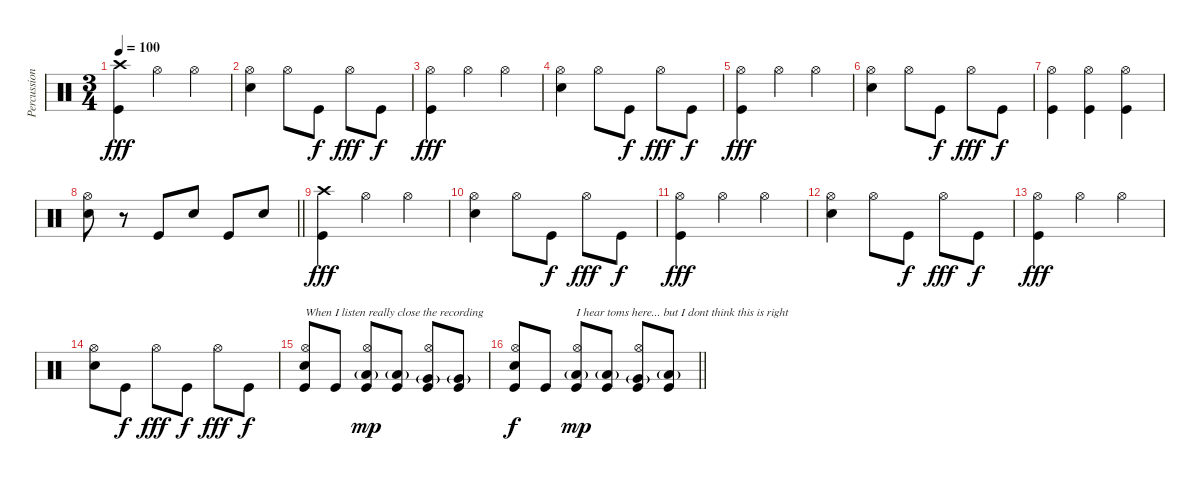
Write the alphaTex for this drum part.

\track ("Percussion" "Percussion") {instrument percussion}
\staff {score}
\articulation defaults
\ts (3 4)
\section ("" "")
\tempo 100
\clef neutral
\ks aminor
("Crash high (hit)" "Kick (hit)").4{dy fff} "Hi-Hat (open)".4 "Hi-Hat (open)".4 |
("Hi-Hat (open)" "Snare (hit) 2").4 "Hi-Hat (open)".8 "Kick (hit)".8{dy f} "Hi-Hat (open)".8{dy fff} "Kick (hit)".8{dy f} |
("Hi-Hat (open)" "Kick (hit)").4{dy fff} "Hi-Hat (open)".4 "Hi-Hat (open)".4 |
("Hi-Hat (open)" "Snare (hit) 2").4 "Hi-Hat (open)".8 "Kick (hit)".8{dy f} "Hi-Hat (open)".8{dy fff} "Kick (hit)".8{dy f} |
("Hi-Hat (open)" "Kick (hit)").4{dy fff} "Hi-Hat (open)".4 "Hi-Hat (open)".4 |
("Hi-Hat (open)" "Snare (hit) 2").4 "Hi-Hat (open)".8 "Kick (hit)".8{dy f} "Hi-Hat (open)".8{dy fff} "Kick (hit)".8{dy f} |
("Hi-Hat (open)" "Kick (hit)").4 ("Hi-Hat (open)" "Kick (hit)").4 ("Hi-Hat (open)" "Kick (hit)").4 |
\barLineRight lightlight
("Hi-Hat (open)" "Snare (hit) 2").8 r.8 "Kick (hit)".8 "Snare (hit) 2".8 "Kick (hit)".8 "Snare (hit) 2".8 |
\section ("" "")
("Crash high (hit)" "Kick (hit)").4{dy fff} "Hi-Hat (open)".4 "Hi-Hat (open)".4 |
("Hi-Hat (open)" "Snare (hit) 2").4 "Hi-Hat (open)".8 "Kick (hit)".8{dy f} "Hi-Hat (open)".8{dy fff} "Kick (hit)".8{dy f} |
("Hi-Hat (open)" "Kick (hit)").4{dy fff} "Hi-Hat (open)".4 "Hi-Hat (open)".4 |
("Hi-Hat (open)" "Snare (hit) 2").4 "Hi-Hat (open)".8 "Kick (hit)".8{dy f} "Hi-Hat (open)".8{dy fff} "Kick (hit)".8{dy f} |
("Hi-Hat (open)" "Kick (hit)").4{dy fff} "Hi-Hat (open)".4 "Hi-Hat (open)".4 |
("Hi-Hat (open)" "Snare (hit) 2").8 "Kick (hit)".8{dy f} "Hi-Hat (open)".8{dy fff} "Kick (hit)".8{dy f} "Hi-Hat (open)".8{dy fff} "Kick (hit)".8{dy f} |
("Hi-Hat (open)" "Snare (hit) 2" "Kick (hit)").8{txt "When I listen really close the recording"} "Kick (hit)".8 ("Hi-Hat (open)" "Low Tom (hit)"{g} "Kick (hit)").8{dy mp} ("Low Floor Tom (hit)"{g} "Kick (hit)").8 ("Hi-Hat (open)" "Very Low Tom (hit)"{g} "Kick (hit)").8 ("Very Low Tom (hit)"{g} "Kick (hit)").8 |
\barLineRight lightlight
("Hi-Hat (open)" "Snare (hit) 2" "Kick (hit)").8{dy f} "Kick (hit)".8 ("Hi-Hat (open)" "Low Tom (hit)"{g} "Kick (hit)").8{txt "I hear toms here... but I dont think this is right" dy mp} ("Low Floor Tom (hit)"{g} "Kick (hit)").8 ("Hi-Hat (open)" "Very Low Tom (hit)"{g} "Kick (hit)").8 ("Low Tom (hit)"{g} "Kick (hit)").8
